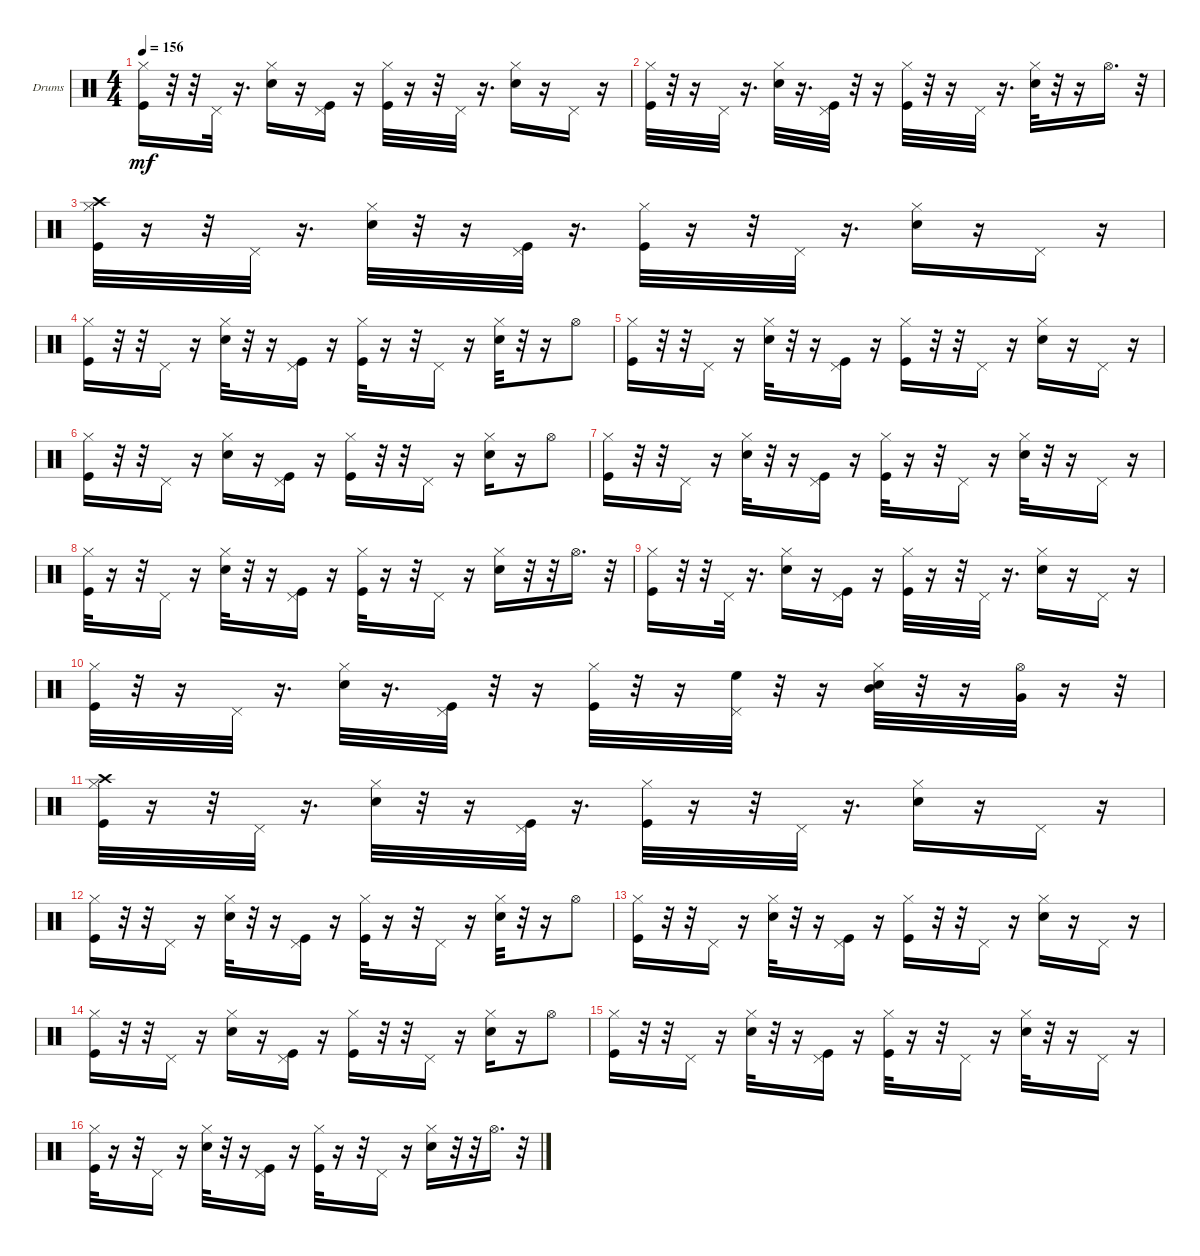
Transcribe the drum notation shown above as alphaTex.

\defaultSystemsLayout 4
\bracketExtendMode groupsimilarinstruments
\firstSystemTrackNameOrientation horizontal
\otherSystemsTrackNameOrientation horizontal
\track ("Drumkit" "Drums") {instrument percussion}
\staff {score}
\articulation defaults
\ts (4 4)
\tempo 156
\clef neutral
\ks c
("Kick (hit)" "Hi-Hat (closed)").16{dy mf} r.32 r.32 "Pedal Hi-Hat (hit)".32 r.16{d} ("Snare (hit) 2" "Hi-Hat (closed)").16 r.16 ("Kick (hit)" "Pedal Hi-Hat (hit)").16 r.16 ("Kick (hit)" "Hi-Hat (closed)").32 r.16 r.32 "Pedal Hi-Hat (hit)".32 r.16{d} ("Snare (hit) 2" "Hi-Hat (closed)").16 r.16 "Pedal Hi-Hat (hit)".16 r.16 |
("Kick (hit)" "Hi-Hat (closed)").32 r.32 r.16 "Pedal Hi-Hat (hit)".32 r.16{d} ("Snare (hit) 2" "Hi-Hat (closed)").32 r.16{d} ("Kick (hit)" "Pedal Hi-Hat (hit)").32 r.32 r.16 ("Kick (hit)" "Hi-Hat (closed)").32 r.32 r.16 "Pedal Hi-Hat (hit)".32 r.16{d} ("Snare (hit) 2" "Hi-Hat (closed)").32 r.32 r.16 "Hi-Hat (open)".16{d} r.32 |
("Kick (hit)" "Crash high (hit)" "Hi-Hat (closed)").32 r.16 r.32 "Pedal Hi-Hat (hit)".32 r.16{d} ("Snare (hit) 2" "Hi-Hat (closed)").32 r.32 r.16 ("Kick (hit)" "Pedal Hi-Hat (hit)").32 r.16{d} ("Kick (hit)" "Hi-Hat (closed)").32 r.16 r.32 "Pedal Hi-Hat (hit)".32 r.16{d} ("Snare (hit) 2" "Hi-Hat (closed)").16 r.16 "Pedal Hi-Hat (hit)".16 r.16 |
("Kick (hit)" "Hi-Hat (closed)").16 r.32 r.32 "Pedal Hi-Hat (hit)".16 r.16 ("Snare (hit) 2" "Hi-Hat (closed)").32 r.32 r.16 ("Kick (hit)" "Pedal Hi-Hat (hit)").16 r.16 ("Kick (hit)" "Hi-Hat (closed)").32 r.16 r.32 "Pedal Hi-Hat (hit)".16 r.16 ("Snare (hit) 2" "Hi-Hat (closed)").32 r.32 r.16 "Hi-Hat (open)".8 |
("Kick (hit)" "Hi-Hat (closed)").16 r.32 r.32 "Pedal Hi-Hat (hit)".16 r.16 ("Snare (hit) 2" "Hi-Hat (closed)").32 r.32 r.16 ("Kick (hit)" "Pedal Hi-Hat (hit)").16 r.16 ("Kick (hit)" "Hi-Hat (closed)").16 r.32 r.32 "Pedal Hi-Hat (hit)".16 r.16 ("Snare (hit) 2" "Hi-Hat (closed)").16 r.16 "Pedal Hi-Hat (hit)".16 r.16 |
("Kick (hit)" "Hi-Hat (closed)").16 r.32 r.32 "Pedal Hi-Hat (hit)".16 r.16 ("Snare (hit) 2" "Hi-Hat (closed)").16 r.16 ("Kick (hit)" "Pedal Hi-Hat (hit)").16 r.16 ("Kick (hit)" "Hi-Hat (closed)").16 r.32 r.32 "Pedal Hi-Hat (hit)".16 r.16 ("Snare (hit) 2" "Hi-Hat (closed)").16 r.16 "Hi-Hat (open)".8 |
("Kick (hit)" "Hi-Hat (closed)").16 r.32 r.32 "Pedal Hi-Hat (hit)".16 r.16 ("Snare (hit) 2" "Hi-Hat (closed)").32 r.32 r.16 ("Kick (hit)" "Pedal Hi-Hat (hit)").16 r.16 ("Kick (hit)" "Hi-Hat (closed)").32 r.16 r.32 "Pedal Hi-Hat (hit)".16 r.16 ("Snare (hit) 2" "Hi-Hat (closed)").32 r.32 r.16 "Pedal Hi-Hat (hit)".16 r.16 |
("Kick (hit)" "Hi-Hat (closed)").32 r.16 r.32 "Pedal Hi-Hat (hit)".16 r.16 ("Snare (hit) 2" "Hi-Hat (closed)").32 r.32 r.16 ("Kick (hit)" "Pedal Hi-Hat (hit)").16 r.16 ("Kick (hit)" "Hi-Hat (closed)").32 r.16 r.32 "Pedal Hi-Hat (hit)".16 r.16 ("Snare (hit) 2" "Hi-Hat (closed)").16 r.32 r.32 "Hi-Hat (open)".16{d} r.32 |
("Kick (hit)" "Hi-Hat (closed)").16 r.32 r.32 "Pedal Hi-Hat (hit)".32 r.16{d} ("Snare (hit) 2" "Hi-Hat (closed)").16 r.16 ("Kick (hit)" "Pedal Hi-Hat (hit)").16 r.16 ("Kick (hit)" "Hi-Hat (closed)").32 r.16 r.32 "Pedal Hi-Hat (hit)".32 r.16{d} ("Snare (hit) 2" "Hi-Hat (closed)").16 r.16 "Pedal Hi-Hat (hit)".16 r.16 |
("Kick (hit)" "Hi-Hat (closed)").32 r.32 r.16 "Pedal Hi-Hat (hit)".32 r.16{d} ("Snare (hit) 2" "Hi-Hat (closed)").32 r.16{d} ("Kick (hit)" "Pedal Hi-Hat (hit)").32 r.32 r.16 ("Kick (hit)" "Hi-Hat (closed)").32 r.32 r.16 ("Pedal Hi-Hat (hit)" "High Floor Tom (hit)").32 r.32 r.16 ("Snare (hit) 2" "Hi-Hat (closed)" "Mid Tom (hit)").32 r.32 r.16 ("Hi-Hat (open)" "Very Low Tom (hit)").32 r.16 r.32 |
("Kick (hit)" "Crash high (hit)" "Hi-Hat (closed)").32 r.16 r.32 "Pedal Hi-Hat (hit)".32 r.16{d} ("Snare (hit) 2" "Hi-Hat (closed)").32 r.32 r.16 ("Kick (hit)" "Pedal Hi-Hat (hit)").32 r.16{d} ("Kick (hit)" "Hi-Hat (closed)").32 r.16 r.32 "Pedal Hi-Hat (hit)".32 r.16{d} ("Snare (hit) 2" "Hi-Hat (closed)").16 r.16 "Pedal Hi-Hat (hit)".16 r.16 |
("Kick (hit)" "Hi-Hat (closed)").16 r.32 r.32 "Pedal Hi-Hat (hit)".16 r.16 ("Snare (hit) 2" "Hi-Hat (closed)").32 r.32 r.16 ("Kick (hit)" "Pedal Hi-Hat (hit)").16 r.16 ("Kick (hit)" "Hi-Hat (closed)").32 r.16 r.32 "Pedal Hi-Hat (hit)".16 r.16 ("Snare (hit) 2" "Hi-Hat (closed)").32 r.32 r.16 "Hi-Hat (open)".8 |
("Kick (hit)" "Hi-Hat (closed)").16 r.32 r.32 "Pedal Hi-Hat (hit)".16 r.16 ("Snare (hit) 2" "Hi-Hat (closed)").32 r.32 r.16 ("Kick (hit)" "Pedal Hi-Hat (hit)").16 r.16 ("Kick (hit)" "Hi-Hat (closed)").16 r.32 r.32 "Pedal Hi-Hat (hit)".16 r.16 ("Snare (hit) 2" "Hi-Hat (closed)").16 r.16 "Pedal Hi-Hat (hit)".16 r.16 |
("Kick (hit)" "Hi-Hat (closed)").16 r.32 r.32 "Pedal Hi-Hat (hit)".16 r.16 ("Snare (hit) 2" "Hi-Hat (closed)").16 r.16 ("Kick (hit)" "Pedal Hi-Hat (hit)").16 r.16 ("Kick (hit)" "Hi-Hat (closed)").16 r.32 r.32 "Pedal Hi-Hat (hit)".16 r.16 ("Snare (hit) 2" "Hi-Hat (closed)").16 r.16 "Hi-Hat (open)".8 |
("Kick (hit)" "Hi-Hat (closed)").16 r.32 r.32 "Pedal Hi-Hat (hit)".16 r.16 ("Snare (hit) 2" "Hi-Hat (closed)").32 r.32 r.16 ("Kick (hit)" "Pedal Hi-Hat (hit)").16 r.16 ("Kick (hit)" "Hi-Hat (closed)").32 r.16 r.32 "Pedal Hi-Hat (hit)".16 r.16 ("Snare (hit) 2" "Hi-Hat (closed)").32 r.32 r.16 "Pedal Hi-Hat (hit)".16 r.16 |
("Kick (hit)" "Hi-Hat (closed)").32 r.16 r.32 "Pedal Hi-Hat (hit)".16 r.16 ("Snare (hit) 2" "Hi-Hat (closed)").32 r.32 r.16 ("Kick (hit)" "Pedal Hi-Hat (hit)").16 r.16 ("Kick (hit)" "Hi-Hat (closed)").32 r.16 r.32 "Pedal Hi-Hat (hit)".16 r.16 ("Snare (hit) 2" "Hi-Hat (closed)").16 r.32 r.32 "Hi-Hat (open)".16{d} r.32
